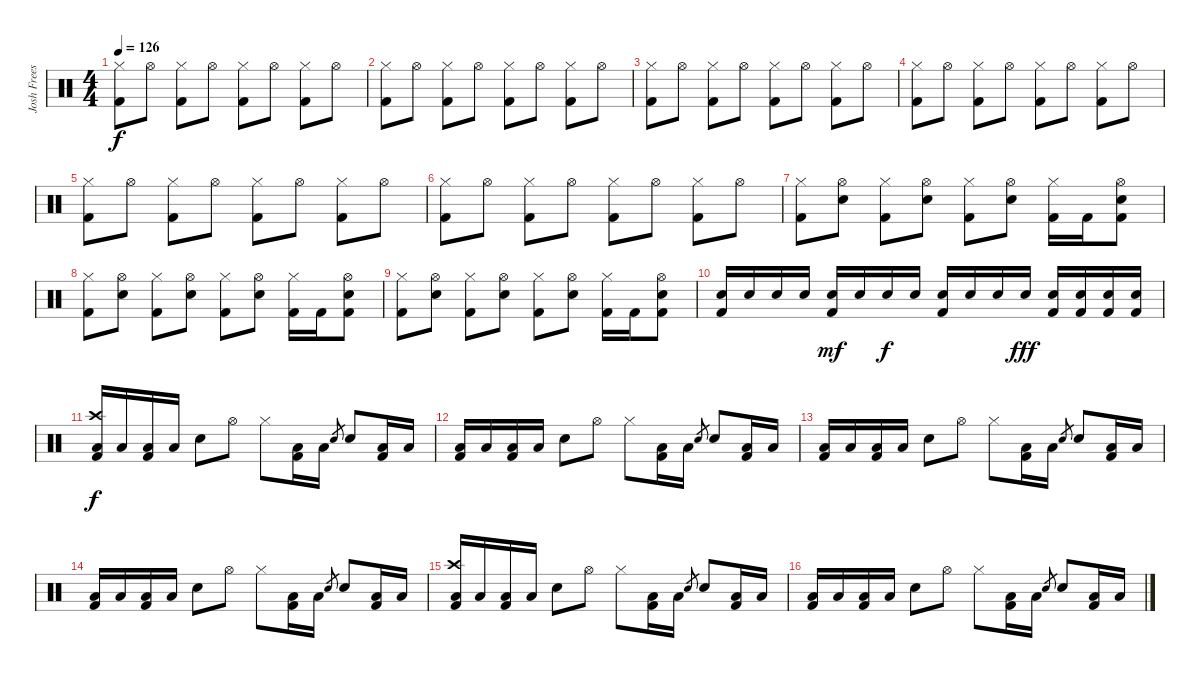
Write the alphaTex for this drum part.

\track ("Josh Freese" "Josh Frees") {instrument percussion}
\staff {score}
\articulation defaults
\ts (4 4)
\tempo 126
\clef neutral
\ks c
("Hi-Hat (closed)" "Kick (hit) 2").8{dy f} "Hi-Hat (open)".8 ("Hi-Hat (closed)" "Kick (hit) 2").8 "Hi-Hat (open)".8 ("Hi-Hat (closed)" "Kick (hit) 2").8 "Hi-Hat (open)".8 ("Hi-Hat (closed)" "Kick (hit) 2").8 "Hi-Hat (open)".8 |
("Hi-Hat (closed)" "Kick (hit) 2").8 "Hi-Hat (open)".8 ("Hi-Hat (closed)" "Kick (hit) 2").8 "Hi-Hat (open)".8 ("Hi-Hat (closed)" "Kick (hit) 2").8 "Hi-Hat (open)".8 ("Hi-Hat (closed)" "Kick (hit) 2").8 "Hi-Hat (open)".8 |
("Hi-Hat (closed)" "Kick (hit) 2").8 "Hi-Hat (open)".8 ("Hi-Hat (closed)" "Kick (hit) 2").8 "Hi-Hat (open)".8 ("Hi-Hat (closed)" "Kick (hit) 2").8 "Hi-Hat (open)".8 ("Hi-Hat (closed)" "Kick (hit) 2").8 "Hi-Hat (open)".8 |
("Hi-Hat (closed)" "Kick (hit) 2").8 "Hi-Hat (open)".8 ("Hi-Hat (closed)" "Kick (hit) 2").8 "Hi-Hat (open)".8 ("Hi-Hat (closed)" "Kick (hit) 2").8 "Hi-Hat (open)".8 ("Hi-Hat (closed)" "Kick (hit) 2").8 "Hi-Hat (open)".8 |
("Hi-Hat (closed)" "Kick (hit) 2").8 "Hi-Hat (open)".8 ("Hi-Hat (closed)" "Kick (hit) 2").8 "Hi-Hat (open)".8 ("Hi-Hat (closed)" "Kick (hit) 2").8 "Hi-Hat (open)".8 ("Hi-Hat (closed)" "Kick (hit) 2").8 "Hi-Hat (open)".8 |
("Hi-Hat (closed)" "Kick (hit) 2").8 "Hi-Hat (open)".8 ("Hi-Hat (closed)" "Kick (hit) 2").8 "Hi-Hat (open)".8 ("Hi-Hat (closed)" "Kick (hit) 2").8 "Hi-Hat (open)".8 ("Hi-Hat (closed)" "Kick (hit) 2").8 "Hi-Hat (open)".8 |
("Hi-Hat (closed)" "Kick (hit) 2").8 ("Snare (hit) 2" "Hi-Hat (open)").8 ("Hi-Hat (closed)" "Kick (hit) 2").8 ("Snare (hit) 2" "Hi-Hat (open)").8 ("Hi-Hat (closed)" "Kick (hit) 2").8 ("Snare (hit) 2" "Hi-Hat (open)").8 ("Hi-Hat (closed)" "Kick (hit) 2").16 "Kick (hit) 2".16 ("Snare (hit) 2" "Hi-Hat (open)" "Kick (hit) 2").8 |
("Hi-Hat (closed)" "Kick (hit) 2").8 ("Snare (hit) 2" "Hi-Hat (open)").8 ("Hi-Hat (closed)" "Kick (hit) 2").8 ("Snare (hit) 2" "Hi-Hat (open)").8 ("Hi-Hat (closed)" "Kick (hit) 2").8 ("Snare (hit) 2" "Hi-Hat (open)").8 ("Hi-Hat (closed)" "Kick (hit) 2").16 "Kick (hit) 2".16 ("Snare (hit) 2" "Hi-Hat (open)" "Kick (hit) 2").8 |
("Hi-Hat (closed)" "Kick (hit) 2").8 ("Snare (hit) 2" "Hi-Hat (open)").8 ("Hi-Hat (closed)" "Kick (hit) 2").8 ("Snare (hit) 2" "Hi-Hat (open)").8 ("Hi-Hat (closed)" "Kick (hit) 2").8 ("Snare (hit) 2" "Hi-Hat (open)").8 ("Hi-Hat (closed)" "Kick (hit) 2").16 "Kick (hit) 2".16 ("Snare (hit) 2" "Hi-Hat (open)" "Kick (hit) 2").8 |
("Snare (hit) 2" "Kick (hit) 2").16 "Snare (hit) 2".16 "Snare (hit) 2".16 "Snare (hit) 2".16 ("Snare (hit) 2" "Kick (hit) 2").16{dy mf} "Snare (hit) 2".16 "Snare (hit) 2".16{dy f} "Snare (hit) 2".16 ("Snare (hit) 2" "Kick (hit) 2").16 "Snare (hit) 2".16 "Snare (hit) 2".16 "Snare (hit) 2".16{dy fff} ("Snare (hit) 2" "Kick (hit) 2").16 ("Snare (hit) 2" "Kick (hit) 2").16 ("Snare (hit) 2" "Kick (hit) 2").16 ("Snare (hit) 2" "Kick (hit) 2").16 |
("Crash high (hit)" "Low Floor Tom (hit)" "Kick (hit) 2").16{dy f} "Low Floor Tom (hit)".16 ("Low Floor Tom (hit)" "Kick (hit) 2").16 "Low Floor Tom (hit)".16 "Snare (hit) 2".8 "Hi-Hat (open)".8 "Hi-Hat (closed)".8 ("Low Floor Tom (hit)" "Kick (hit) 2").16 "Low Floor Tom (hit)".16 "Snare (hit) 2".8{gr} "Snare (hit) 2".8 ("Low Floor Tom (hit)" "Kick (hit) 2").16 "Low Floor Tom (hit)".16 |
("Low Floor Tom (hit)" "Kick (hit) 2").16 "Low Floor Tom (hit)".16 ("Low Floor Tom (hit)" "Kick (hit) 2").16 "Low Floor Tom (hit)".16 "Snare (hit) 2".8 "Hi-Hat (open)".8 "Hi-Hat (closed)".8 ("Low Floor Tom (hit)" "Kick (hit) 2").16 "Low Floor Tom (hit)".16 "Snare (hit) 2".8{gr} "Snare (hit) 2".8 ("Low Floor Tom (hit)" "Kick (hit) 2").16 "Low Floor Tom (hit)".16 |
("Low Floor Tom (hit)" "Kick (hit) 2").16 "Low Floor Tom (hit)".16 ("Low Floor Tom (hit)" "Kick (hit) 2").16 "Low Floor Tom (hit)".16 "Snare (hit) 2".8 "Hi-Hat (open)".8 "Hi-Hat (closed)".8 ("Low Floor Tom (hit)" "Kick (hit) 2").16 "Low Floor Tom (hit)".16 "Snare (hit) 2".8{gr} "Snare (hit) 2".8 ("Low Floor Tom (hit)" "Kick (hit) 2").16 "Low Floor Tom (hit)".16 |
("Low Floor Tom (hit)" "Kick (hit) 2").16 "Low Floor Tom (hit)".16 ("Low Floor Tom (hit)" "Kick (hit) 2").16 "Low Floor Tom (hit)".16 "Snare (hit) 2".8 "Hi-Hat (open)".8 "Hi-Hat (closed)".8 ("Low Floor Tom (hit)" "Kick (hit) 2").16 "Low Floor Tom (hit)".16 "Snare (hit) 2".8{gr} "Snare (hit) 2".8 ("Low Floor Tom (hit)" "Kick (hit) 2").16 "Low Floor Tom (hit)".16 |
("Crash high (hit)" "Low Floor Tom (hit)" "Kick (hit) 2").16 "Low Floor Tom (hit)".16 ("Low Floor Tom (hit)" "Kick (hit) 2").16 "Low Floor Tom (hit)".16 "Snare (hit) 2".8 "Hi-Hat (open)".8 "Hi-Hat (closed)".8 ("Low Floor Tom (hit)" "Kick (hit) 2").16 "Low Floor Tom (hit)".16 "Snare (hit) 2".8{gr} "Snare (hit) 2".8 ("Low Floor Tom (hit)" "Kick (hit) 2").16 "Low Floor Tom (hit)".16 |
("Low Floor Tom (hit)" "Kick (hit) 2").16 "Low Floor Tom (hit)".16 ("Low Floor Tom (hit)" "Kick (hit) 2").16 "Low Floor Tom (hit)".16 "Snare (hit) 2".8 "Hi-Hat (open)".8 "Hi-Hat (closed)".8 ("Low Floor Tom (hit)" "Kick (hit) 2").16 "Low Floor Tom (hit)".16 "Snare (hit) 2".8{gr} "Snare (hit) 2".8 ("Low Floor Tom (hit)" "Kick (hit) 2").16 "Low Floor Tom (hit)".16
